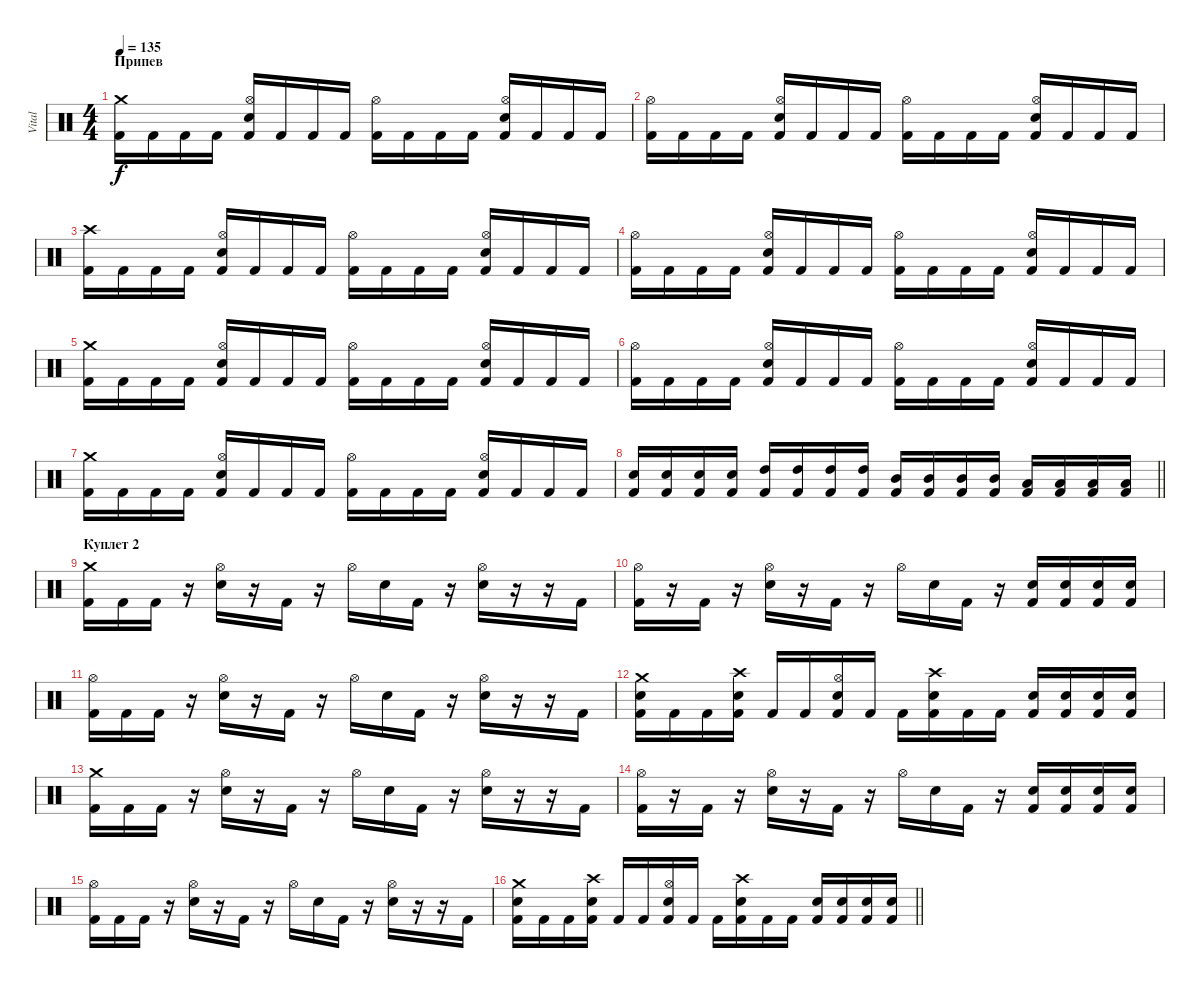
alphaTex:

\track ("Vital" "Vital") {instrument percussion}
\staff {score}
\articulation defaults
\ts (4 4)
\section ("" "Припев")
\tempo 135
\clef neutral
\ks c
("Crash medium (hit)" "Kick (hit) 2").16{dy f} "Kick (hit) 2".16 "Kick (hit) 2".16 "Kick (hit) 2".16 ("Hi-Hat (open)" "Snare (hit) 2" "Kick (hit) 2").16 "Kick (hit) 2".16 "Kick (hit) 2".16 "Kick (hit) 2".16 ("Hi-Hat (open)" "Kick (hit) 2").16 "Kick (hit) 2".16 "Kick (hit) 2".16 "Kick (hit) 2".16 ("Hi-Hat (open)" "Snare (hit) 2" "Kick (hit) 2").16 "Kick (hit) 2".16 "Kick (hit) 2".16 "Kick (hit) 2".16 |
("Hi-Hat (open)" "Kick (hit) 2").16 "Kick (hit) 2".16 "Kick (hit) 2".16 "Kick (hit) 2".16 ("Hi-Hat (open)" "Snare (hit) 2" "Kick (hit) 2").16 "Kick (hit) 2".16 "Kick (hit) 2".16 "Kick (hit) 2".16 ("Hi-Hat (open)" "Kick (hit) 2").16 "Kick (hit) 2".16 "Kick (hit) 2".16 "Kick (hit) 2".16 ("Hi-Hat (open)" "Snare (hit) 2" "Kick (hit) 2").16 "Kick (hit) 2".16 "Kick (hit) 2".16 "Kick (hit) 2".16 |
("Crash high (hit)" "Kick (hit) 2").16 "Kick (hit) 2".16 "Kick (hit) 2".16 "Kick (hit) 2".16 ("Hi-Hat (open)" "Snare (hit) 2" "Kick (hit) 2").16 "Kick (hit) 2".16 "Kick (hit) 2".16 "Kick (hit) 2".16 ("Hi-Hat (open)" "Kick (hit) 2").16 "Kick (hit) 2".16 "Kick (hit) 2".16 "Kick (hit) 2".16 ("Hi-Hat (open)" "Snare (hit) 2" "Kick (hit) 2").16 "Kick (hit) 2".16 "Kick (hit) 2".16 "Kick (hit) 2".16 |
("Hi-Hat (open)" "Kick (hit) 2").16 "Kick (hit) 2".16 "Kick (hit) 2".16 "Kick (hit) 2".16 ("Hi-Hat (open)" "Snare (hit) 2" "Kick (hit) 2").16 "Kick (hit) 2".16 "Kick (hit) 2".16 "Kick (hit) 2".16 ("Hi-Hat (open)" "Kick (hit) 2").16 "Kick (hit) 2".16 "Kick (hit) 2".16 "Kick (hit) 2".16 ("Hi-Hat (open)" "Snare (hit) 2" "Kick (hit) 2").16 "Kick (hit) 2".16 "Kick (hit) 2".16 "Kick (hit) 2".16 |
("Crash medium (hit)" "Kick (hit) 2").16 "Kick (hit) 2".16 "Kick (hit) 2".16 "Kick (hit) 2".16 ("Hi-Hat (open)" "Snare (hit) 2" "Kick (hit) 2").16 "Kick (hit) 2".16 "Kick (hit) 2".16 "Kick (hit) 2".16 ("Hi-Hat (open)" "Kick (hit) 2").16 "Kick (hit) 2".16 "Kick (hit) 2".16 "Kick (hit) 2".16 ("Hi-Hat (open)" "Snare (hit) 2" "Kick (hit) 2").16 "Kick (hit) 2".16 "Kick (hit) 2".16 "Kick (hit) 2".16 |
("Hi-Hat (open)" "Kick (hit) 2").16 "Kick (hit) 2".16 "Kick (hit) 2".16 "Kick (hit) 2".16 ("Hi-Hat (open)" "Snare (hit) 2" "Kick (hit) 2").16 "Kick (hit) 2".16 "Kick (hit) 2".16 "Kick (hit) 2".16 ("Hi-Hat (open)" "Kick (hit) 2").16 "Kick (hit) 2".16 "Kick (hit) 2".16 "Kick (hit) 2".16 ("Hi-Hat (open)" "Snare (hit) 2" "Kick (hit) 2").16 "Kick (hit) 2".16 "Kick (hit) 2".16 "Kick (hit) 2".16 |
("Crash medium (hit)" "Kick (hit) 2").16 "Kick (hit) 2".16 "Kick (hit) 2".16 "Kick (hit) 2".16 ("Hi-Hat (open)" "Snare (hit) 2" "Kick (hit) 2").16 "Kick (hit) 2".16 "Kick (hit) 2".16 "Kick (hit) 2".16 ("Hi-Hat (open)" "Kick (hit) 2").16 "Kick (hit) 2".16 "Kick (hit) 2".16 "Kick (hit) 2".16 ("Hi-Hat (open)" "Snare (hit) 2" "Kick (hit) 2").16 "Kick (hit) 2".16 "Kick (hit) 2".16 "Kick (hit) 2".16 |
\barLineRight lightlight
("Snare (hit) 2" "Kick (hit) 2").16 ("Snare (hit) 2" "Kick (hit) 2").16 ("Snare (hit) 2" "Kick (hit) 2").16 ("Snare (hit) 2" "Kick (hit) 2").16 ("High Tom (hit)" "Kick (hit) 2").16 ("High Tom (hit)" "Kick (hit) 2").16 ("High Tom (hit)" "Kick (hit) 2").16 ("High Tom (hit)" "Kick (hit) 2").16 ("Mid Tom (hit)" "Kick (hit) 2").16 ("Mid Tom (hit)" "Kick (hit) 2").16 ("Mid Tom (hit)" "Kick (hit) 2").16 ("Mid Tom (hit)" "Kick (hit) 2").16 ("Low Tom (hit)" "Kick (hit) 2").16 ("Low Tom (hit)" "Kick (hit) 2").16 ("Low Tom (hit)" "Kick (hit) 2").16 ("Low Tom (hit)" "Kick (hit) 2").16 |
\section ("" "Куплет 2")
("Crash medium (hit)" "Kick (hit) 2").16 "Kick (hit) 2".16 "Kick (hit) 2".16 r.16 ("Hi-Hat (open)" "Snare (hit) 2").16 r.16 "Kick (hit) 2".16 r.16 "Hi-Hat (open)".16 "Snare (hit) 2".16 "Kick (hit) 2".16 r.16 ("Hi-Hat (open)" "Snare (hit) 2").16 r.16 r.16 "Kick (hit) 2".16 |
("Hi-Hat (open)" "Kick (hit) 2").16 r.16 "Kick (hit) 2".16 r.16 ("Hi-Hat (open)" "Snare (hit) 2").16 r.16 "Kick (hit) 2".16 r.16 "Hi-Hat (open)".16 "Snare (hit) 2".16 "Kick (hit) 2".16 r.16 ("Snare (hit) 2" "Kick (hit) 2").16 ("Snare (hit) 2" "Kick (hit) 2").16 ("Snare (hit) 2" "Kick (hit) 2").16 ("Snare (hit) 2" "Kick (hit) 2").16 |
("Hi-Hat (open)" "Kick (hit) 2").16 "Kick (hit) 2".16 "Kick (hit) 2".16 r.16 ("Hi-Hat (open)" "Snare (hit) 2").16 r.16 "Kick (hit) 2".16 r.16 "Hi-Hat (open)".16 "Snare (hit) 2".16 "Kick (hit) 2".16 r.16 ("Hi-Hat (open)" "Snare (hit) 2").16 r.16 r.16 "Kick (hit) 2".16 |
("Crash medium (hit)" "Snare (hit) 2" "Kick (hit) 2").16 "Kick (hit) 2".16 "Kick (hit) 2".16 ("Crash high (hit)" "Snare (hit) 2" "Kick (hit) 2").16 "Kick (hit) 2".16 "Kick (hit) 2".16 ("Hi-Hat (open)" "Snare (hit) 2" "Kick (hit) 2").16 "Kick (hit) 2".16 "Kick (hit) 2".16 ("Crash high (hit)" "Snare (hit) 2" "Kick (hit) 2").16 "Kick (hit) 2".16 "Kick (hit) 2".16 ("Snare (hit) 2" "Kick (hit) 2").16 ("Snare (hit) 2" "Kick (hit) 2").16 ("Snare (hit) 2" "Kick (hit) 2").16 ("Snare (hit) 2" "Kick (hit) 2").16 |
("Crash medium (hit)" "Kick (hit) 2").16 "Kick (hit) 2".16 "Kick (hit) 2".16 r.16 ("Hi-Hat (open)" "Snare (hit) 2").16 r.16 "Kick (hit) 2".16 r.16 "Hi-Hat (open)".16 "Snare (hit) 2".16 "Kick (hit) 2".16 r.16 ("Hi-Hat (open)" "Snare (hit) 2").16 r.16 r.16 "Kick (hit) 2".16 |
("Hi-Hat (open)" "Kick (hit) 2").16 r.16 "Kick (hit) 2".16 r.16 ("Hi-Hat (open)" "Snare (hit) 2").16 r.16 "Kick (hit) 2".16 r.16 "Hi-Hat (open)".16 "Snare (hit) 2".16 "Kick (hit) 2".16 r.16 ("Snare (hit) 2" "Kick (hit) 2").16 ("Snare (hit) 2" "Kick (hit) 2").16 ("Snare (hit) 2" "Kick (hit) 2").16 ("Snare (hit) 2" "Kick (hit) 2").16 |
("Hi-Hat (open)" "Kick (hit) 2").16 "Kick (hit) 2".16 "Kick (hit) 2".16 r.16 ("Hi-Hat (open)" "Snare (hit) 2").16 r.16 "Kick (hit) 2".16 r.16 "Hi-Hat (open)".16 "Snare (hit) 2".16 "Kick (hit) 2".16 r.16 ("Hi-Hat (open)" "Snare (hit) 2").16 r.16 r.16 "Kick (hit) 2".16 |
\barLineRight lightlight
("Crash medium (hit)" "Snare (hit) 2" "Kick (hit) 2").16 "Kick (hit) 2".16 "Kick (hit) 2".16 ("Crash high (hit)" "Snare (hit) 2" "Kick (hit) 2").16 "Kick (hit) 2".16 "Kick (hit) 2".16 ("Hi-Hat (open)" "Snare (hit) 2" "Kick (hit) 2").16 "Kick (hit) 2".16 "Kick (hit) 2".16 ("Crash high (hit)" "Snare (hit) 2" "Kick (hit) 2").16 "Kick (hit) 2".16 "Kick (hit) 2".16 ("Snare (hit) 2" "Kick (hit) 2").16 ("Snare (hit) 2" "Kick (hit) 2").16 ("Snare (hit) 2" "Kick (hit) 2").16 ("Snare (hit) 2" "Kick (hit) 2").16
